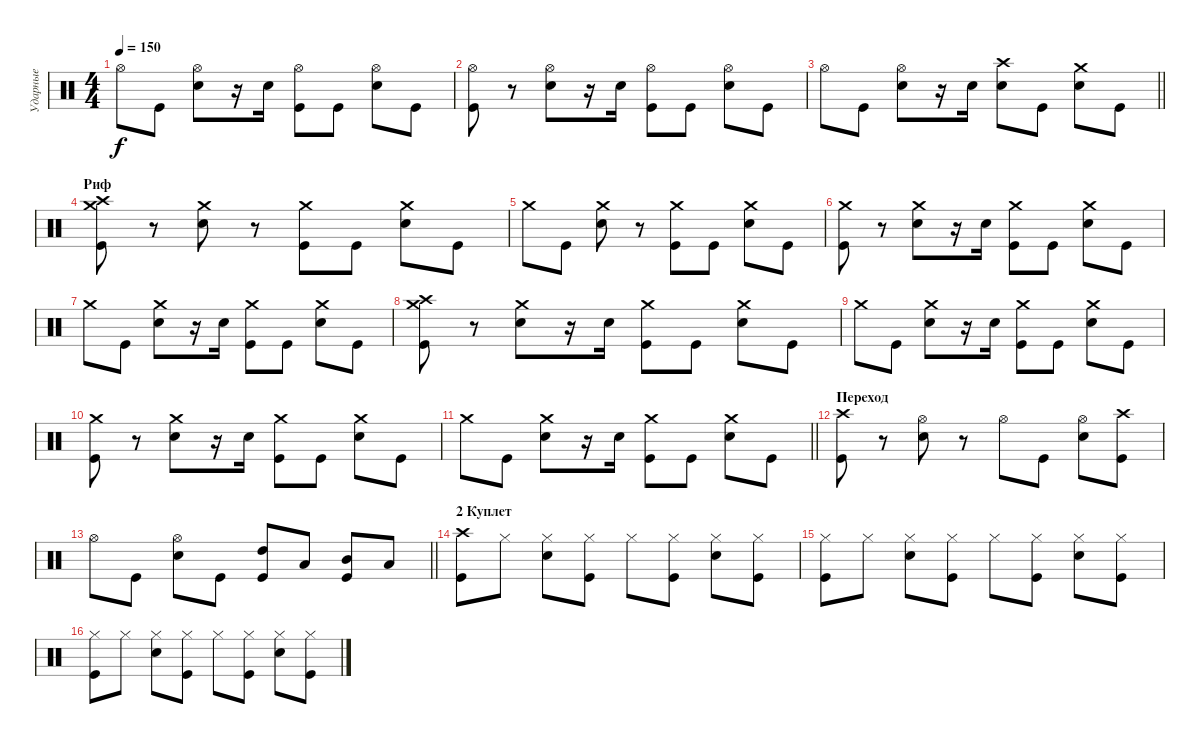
\track ("Ударные" "Ударные") {instrument percussion}
\staff {score}
\articulation defaults
\ts (4 4)
\tempo 150
\clef neutral
\ks c "Hi-Hat (open)".8{dy f} "Kick (hit)".8
("Snare (hit) 2" "Hi-Hat (open)").8 r.16 "Snare (hit) 2".16 ("Kick (hit)" "Hi-Hat (open)").8 "Kick (hit)".8 ("Snare (hit) 2" "Hi-Hat (open)").8 "Kick (hit)".8 |
("Kick (hit)" "Hi-Hat (open)").8 r.8 ("Snare (hit) 2" "Hi-Hat (open)").8 r.16 "Snare (hit) 2".16 ("Kick (hit)" "Hi-Hat (open)").8 "Kick (hit)".8 ("Snare (hit) 2" "Hi-Hat (open)").8 "Kick (hit)".8 |
\barLineRight lightlight "Hi-Hat (open)".8 "Kick (hit)".8
("Snare (hit) 2" "Hi-Hat (open)").8 r.16 "Snare (hit) 2".16 ("Snare (hit) 2" "Crash high (hit)").8 "Kick (hit)".8 ("Snare (hit) 2" "Crash medium (hit)").8 "Kick (hit)".8 |
\section ("" "Риф")
("Kick (hit)" "Crash high (hit)" "Crash medium (hit)").8 r.8 ("Snare (hit) 2" "Crash medium (hit)").8 r.8 ("Kick (hit)" "Crash medium (hit)").8 "Kick (hit)".8 ("Snare (hit) 2" "Crash medium (hit)").8 "Kick (hit)".8 |
"Crash medium (hit)".8 "Kick (hit)".8 ("Snare (hit) 2" "Crash medium (hit)").8 r.8 ("Kick (hit)" "Crash medium (hit)").8 "Kick (hit)".8 ("Snare (hit) 2" "Crash medium (hit)").8 "Kick (hit)".8 |
("Kick (hit)" "Crash medium (hit)").8 r.8 ("Snare (hit) 2" "Crash medium (hit)").8 r.16 "Snare (hit) 2".16 ("Kick (hit)" "Crash medium (hit)").8 "Kick (hit)".8 ("Snare (hit) 2" "Crash medium (hit)").8 "Kick (hit)".8 |
"Crash medium (hit)".8 "Kick (hit)".8 ("Snare (hit) 2" "Crash medium (hit)").8 r.16 "Snare (hit) 2".16 ("Kick (hit)" "Crash medium (hit)").8 "Kick (hit)".8 ("Snare (hit) 2" "Crash medium (hit)").8 "Kick (hit)".8 |
("Kick (hit)" "Crash medium (hit)" "Crash high (hit)").8 r.8 ("Snare (hit) 2" "Crash medium (hit)").8 r.16 "Snare (hit) 2".16 ("Kick (hit)" "Crash medium (hit)").8 "Kick (hit)".8 ("Snare (hit) 2" "Crash medium (hit)").8 "Kick (hit)".8 |
"Crash medium (hit)".8 "Kick (hit)".8 ("Snare (hit) 2" "Crash medium (hit)").8 r.16 "Snare (hit) 2".16 ("Kick (hit)" "Crash medium (hit)").8 "Kick (hit)".8 ("Snare (hit) 2" "Crash medium (hit)").8 "Kick (hit)".8 |
("Kick (hit)" "Crash medium (hit)").8 r.8 ("Snare (hit) 2" "Crash medium (hit)").8 r.16 "Snare (hit) 2".16 ("Kick (hit)" "Crash medium (hit)").8 "Kick (hit)".8 ("Snare (hit) 2" "Crash medium (hit)").8 "Kick (hit)".8 |
\barLineRight lightlight "Crash medium (hit)".8 "Kick (hit)".8
("Snare (hit) 2" "Crash medium (hit)").8 r.16 "Snare (hit) 2".16 ("Kick (hit)" "Crash medium (hit)").8 "Kick (hit)".8 ("Snare (hit) 2" "Crash medium (hit)").8 "Kick (hit)".8 |
\section ("" "Переход")
("Kick (hit)" "Crash high (hit)").8 r.8 ("Snare (hit) 2" "Hi-Hat (open)").8 r.8 "Hi-Hat (open)".8 "Kick (hit)".8 ("Snare (hit) 2" "Hi-Hat (open)").8 ("Kick (hit)" "Crash high (hit)").8 |
\barLineRight lightlight "Hi-Hat (open)".8 "Kick (hit)".8
("Snare (hit) 2" "Hi-Hat (open)").8 "Kick (hit)".8 ("High Tom (hit)" "Kick (hit)").8 "Low Tom (hit)".8 ("Mid Tom (hit)" "Kick (hit)").8 "Low Tom (hit)".8 |
\section ("" "2 Куплет")
("Kick (hit)" "Crash high (hit)").8 "Hi-Hat (closed)".8 ("Snare (hit) 2" "Hi-Hat (closed)").8 ("Kick (hit)" "Hi-Hat (closed)").8 "Hi-Hat (closed)".8 ("Kick (hit)" "Hi-Hat (closed)").8 ("Snare (hit) 2" "Hi-Hat (closed)").8 ("Kick (hit)" "Hi-Hat (closed)").8 |
("Kick (hit)" "Hi-Hat (closed)").8 "Hi-Hat (closed)".8 ("Snare (hit) 2" "Hi-Hat (closed)").8 ("Kick (hit)" "Hi-Hat (closed)").8 "Hi-Hat (closed)".8 ("Kick (hit)" "Hi-Hat (closed)").8 ("Snare (hit) 2" "Hi-Hat (closed)").8 ("Kick (hit)" "Hi-Hat (closed)").8 |
("Kick (hit)" "Hi-Hat (closed)").8 "Hi-Hat (closed)".8 ("Snare (hit) 2" "Hi-Hat (closed)").8 ("Kick (hit)" "Hi-Hat (closed)").8 "Hi-Hat (closed)".8 ("Kick (hit)" "Hi-Hat (closed)").8 ("Snare (hit) 2" "Hi-Hat (closed)").8 ("Kick (hit)" "Hi-Hat (closed)").8
